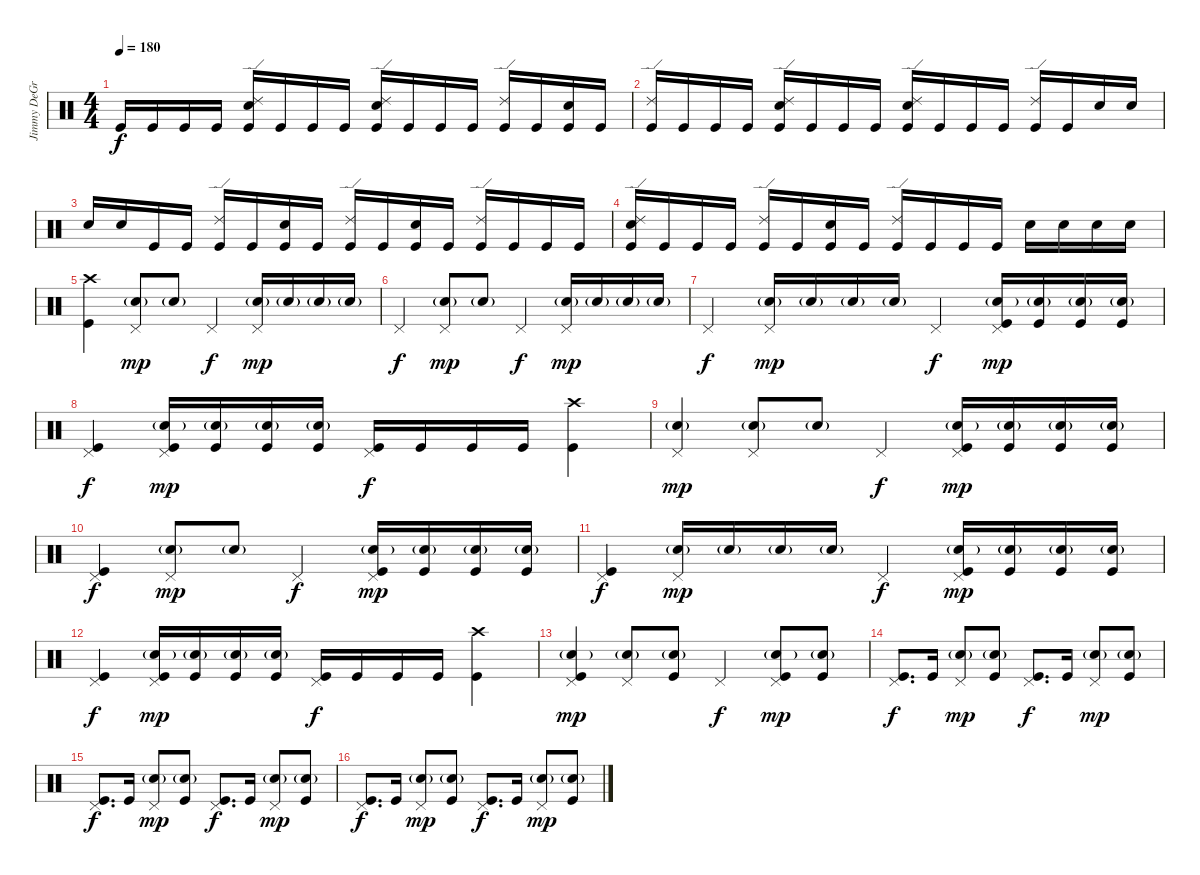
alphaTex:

\track ("Jimmy DeGrasso" "Jimmy DeGr") {instrument percussion}
\staff {score}
\articulation defaults
\ts (4 4)
\tempo 180
\clef neutral
\ks c "Kick (hit)".16{dy f} "Kick (hit)".16 "Kick (hit)".16 "Kick (hit)".16
("Ride (edge) 2" "Snare (hit) 2" "Kick (hit)").16 "Kick (hit)".16 "Kick (hit)".16 "Kick (hit)".16 ("Ride (edge) 2" "Snare (hit) 2" "Kick (hit)").16 "Kick (hit)".16 "Kick (hit)".16 "Kick (hit)".16 ("Ride (edge) 2" "Kick (hit)").16 "Kick (hit)".16 ("Snare (hit) 2" "Kick (hit)").16 "Kick (hit)".16 |
("Ride (edge) 2" "Kick (hit)").16 "Kick (hit)".16 "Kick (hit)".16 "Kick (hit)".16 ("Ride (edge) 2" "Snare (hit) 2" "Kick (hit)").16 "Kick (hit)".16 "Kick (hit)".16 "Kick (hit)".16 ("Ride (edge) 2" "Snare (hit) 2" "Kick (hit)").16 "Kick (hit)".16 "Kick (hit)".16 "Kick (hit)".16 ("Ride (edge) 2" "Kick (hit)").16 "Kick (hit)".16 "Snare (hit) 2".16 "Snare (hit) 2".16 |
"Snare (hit) 2".16 "Snare (hit) 2".16 "Kick (hit)".16 "Kick (hit)".16 ("Ride (edge) 2" "Kick (hit)").16 "Kick (hit)".16 ("Snare (hit) 2" "Kick (hit)").16 "Kick (hit)".16 ("Ride (edge) 2" "Kick (hit)").16 "Kick (hit)".16 ("Snare (hit) 2" "Kick (hit)").16 "Kick (hit)".16 ("Ride (edge) 2" "Kick (hit)").16 "Kick (hit)".16 "Kick (hit)".16 "Kick (hit)".16 |
("Ride (edge) 2" "Snare (hit) 2" "Kick (hit)").16 "Kick (hit)".16 "Kick (hit)".16 "Kick (hit)".16 ("Ride (edge) 2" "Kick (hit)").16 "Kick (hit)".16 ("Snare (hit) 2" "Kick (hit)").16 "Kick (hit)".16 ("Ride (edge) 2" "Kick (hit)").16 "Kick (hit)".16 "Kick (hit)".16 "Kick (hit)".16 "Snare (hit) 2".16 "Snare (hit) 2".16 "Snare (hit) 2".16 "Snare (hit) 2".16 |
("Crash high (hit)" "Kick (hit)").4 ("Pedal Hi-Hat (hit)" "Snare (hit) 2"{g}).8{dy mp} "Snare (hit) 2"{g}.8 "Pedal Hi-Hat (hit)".4{dy f} ("Pedal Hi-Hat (hit)" "Snare (hit) 2"{g}).16{dy mp} "Snare (hit) 2"{g}.16 "Snare (hit) 2"{g}.16 "Snare (hit) 2"{g}.16 |
"Pedal Hi-Hat (hit)".4{dy f} ("Pedal Hi-Hat (hit)" "Snare (hit) 2"{g}).8{dy mp} "Snare (hit) 2"{g}.8 "Pedal Hi-Hat (hit)".4{dy f} ("Pedal Hi-Hat (hit)" "Snare (hit) 2"{g}).16{dy mp} "Snare (hit) 2"{g}.16 "Snare (hit) 2"{g}.16 "Snare (hit) 2"{g}.16 |
"Pedal Hi-Hat (hit)".4{dy f} ("Pedal Hi-Hat (hit)" "Snare (hit) 2"{g}).16{dy mp} "Snare (hit) 2"{g}.16 "Snare (hit) 2"{g}.16 "Snare (hit) 2"{g}.16 "Pedal Hi-Hat (hit)".4{dy f} ("Pedal Hi-Hat (hit)" "Snare (hit) 2"{g} "Kick (hit)").16{dy mp} ("Snare (hit) 2"{g} "Kick (hit)").16 ("Snare (hit) 2"{g} "Kick (hit)").16 ("Snare (hit) 2"{g} "Kick (hit)").16 |
("Pedal Hi-Hat (hit)" "Kick (hit)").4{dy f} ("Pedal Hi-Hat (hit)" "Snare (hit) 2"{g} "Kick (hit)").16{dy mp} ("Snare (hit) 2"{g} "Kick (hit)").16 ("Snare (hit) 2"{g} "Kick (hit)").16 ("Snare (hit) 2"{g} "Kick (hit)").16 ("Pedal Hi-Hat (hit)" "Kick (hit)").16{dy f} "Kick (hit)".16 "Kick (hit)".16 "Kick (hit)".16 ("Crash high (hit)" "Kick (hit)").4 |
("Pedal Hi-Hat (hit)" "Snare (hit) 2"{g}).4{dy mp} ("Pedal Hi-Hat (hit)" "Snare (hit) 2"{g}).8 "Snare (hit) 2"{g}.8 "Pedal Hi-Hat (hit)".4{dy f} ("Pedal Hi-Hat (hit)" "Snare (hit) 2"{g} "Kick (hit)").16{dy mp} ("Snare (hit) 2"{g} "Kick (hit)").16 ("Snare (hit) 2"{g} "Kick (hit)").16 ("Snare (hit) 2"{g} "Kick (hit)").16 |
("Pedal Hi-Hat (hit)" "Kick (hit)").4{dy f} ("Pedal Hi-Hat (hit)" "Snare (hit) 2"{g}).8{dy mp} "Snare (hit) 2"{g}.8 "Pedal Hi-Hat (hit)".4{dy f} ("Pedal Hi-Hat (hit)" "Snare (hit) 2"{g} "Kick (hit)").16{dy mp} ("Snare (hit) 2"{g} "Kick (hit)").16 ("Snare (hit) 2"{g} "Kick (hit)").16 ("Snare (hit) 2"{g} "Kick (hit)").16 |
("Pedal Hi-Hat (hit)" "Kick (hit)").4{dy f} ("Pedal Hi-Hat (hit)" "Snare (hit) 2"{g}).16{dy mp} "Snare (hit) 2"{g}.16 "Snare (hit) 2"{g}.16 "Snare (hit) 2"{g}.16 "Pedal Hi-Hat (hit)".4{dy f} ("Pedal Hi-Hat (hit)" "Snare (hit) 2"{g} "Kick (hit)").16{dy mp} ("Snare (hit) 2"{g} "Kick (hit)").16 ("Snare (hit) 2"{g} "Kick (hit)").16 ("Snare (hit) 2"{g} "Kick (hit)").16 |
("Pedal Hi-Hat (hit)" "Kick (hit)").4{dy f} ("Pedal Hi-Hat (hit)" "Snare (hit) 2"{g} "Kick (hit)").16{dy mp} ("Snare (hit) 2"{g} "Kick (hit)").16 ("Snare (hit) 2"{g} "Kick (hit)").16 ("Snare (hit) 2"{g} "Kick (hit)").16 ("Pedal Hi-Hat (hit)" "Kick (hit)").16{dy f} "Kick (hit)".16 "Kick (hit)".16 "Kick (hit)".16 ("Crash high (hit)" "Kick (hit)").4 |
("Pedal Hi-Hat (hit)" "Snare (hit) 2"{g} "Kick (hit)").4{dy mp} ("Pedal Hi-Hat (hit)" "Snare (hit) 2"{g}).8 ("Snare (hit) 2"{g} "Kick (hit)").8 "Pedal Hi-Hat (hit)".4{dy f} ("Pedal Hi-Hat (hit)" "Snare (hit) 2"{g} "Kick (hit)").8{dy mp} ("Snare (hit) 2"{g} "Kick (hit)").8 |
("Pedal Hi-Hat (hit)" "Kick (hit)").8{d dy f} "Kick (hit)".16 ("Pedal Hi-Hat (hit)" "Snare (hit) 2"{g}).8{dy mp} ("Snare (hit) 2"{g} "Kick (hit)").8 ("Pedal Hi-Hat (hit)" "Kick (hit)").8{d dy f} "Kick (hit)".16 ("Pedal Hi-Hat (hit)" "Snare (hit) 2"{g}).8{dy mp} ("Snare (hit) 2"{g} "Kick (hit)").8 |
("Pedal Hi-Hat (hit)" "Kick (hit)").8{d dy f} "Kick (hit)".16 ("Pedal Hi-Hat (hit)" "Snare (hit) 2"{g}).8{dy mp} ("Snare (hit) 2"{g} "Kick (hit)").8 ("Pedal Hi-Hat (hit)" "Kick (hit)").8{d dy f} "Kick (hit)".16 ("Pedal Hi-Hat (hit)" "Snare (hit) 2"{g}).8{dy mp} ("Snare (hit) 2"{g} "Kick (hit)").8 |
("Pedal Hi-Hat (hit)" "Kick (hit)").8{d dy f} "Kick (hit)".16 ("Pedal Hi-Hat (hit)" "Snare (hit) 2"{g}).8{dy mp} ("Snare (hit) 2"{g} "Kick (hit)").8 ("Pedal Hi-Hat (hit)" "Kick (hit)").8{d dy f} "Kick (hit)".16 ("Pedal Hi-Hat (hit)" "Snare (hit) 2"{g}).8{dy mp} ("Snare (hit) 2"{g} "Kick (hit)").8
